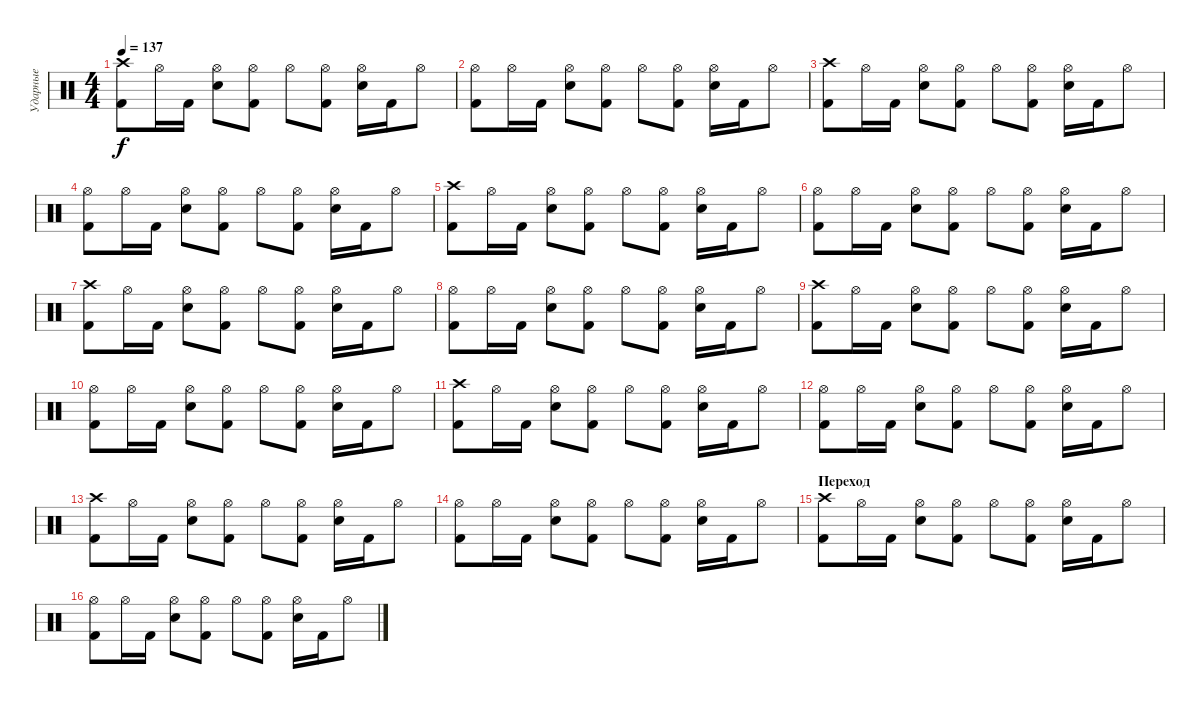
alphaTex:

\track ("Ударные" "Ударные") {instrument percussion}
\staff {score}
\articulation defaults
\ts (4 4)
\tempo 137
\clef neutral
\ks c
("Crash high (hit)" "Kick (hit) 2").8{dy f} "Hi-Hat (open)".16 "Kick (hit) 2".16 ("Hi-Hat (open)" "Electric Snare (hit)").8 ("Hi-Hat (open)" "Kick (hit) 2").8 "Hi-Hat (open)".8 ("Hi-Hat (open)" "Kick (hit) 2").8 ("Hi-Hat (open)" "Electric Snare (hit)").16 "Kick (hit) 2".16 "Hi-Hat (open)".8 |
("Hi-Hat (open)" "Kick (hit) 2").8 "Hi-Hat (open)".16 "Kick (hit) 2".16 ("Hi-Hat (open)" "Electric Snare (hit)").8 ("Hi-Hat (open)" "Kick (hit) 2").8 "Hi-Hat (open)".8 ("Hi-Hat (open)" "Kick (hit) 2").8 ("Hi-Hat (open)" "Electric Snare (hit)").16 "Kick (hit) 2".16 "Hi-Hat (open)".8 |
("Crash high (hit)" "Kick (hit) 2").8 "Hi-Hat (open)".16 "Kick (hit) 2".16 ("Hi-Hat (open)" "Electric Snare (hit)").8 ("Hi-Hat (open)" "Kick (hit) 2").8 "Hi-Hat (open)".8 ("Hi-Hat (open)" "Kick (hit) 2").8 ("Hi-Hat (open)" "Electric Snare (hit)").16 "Kick (hit) 2".16 "Hi-Hat (open)".8 |
("Hi-Hat (open)" "Kick (hit) 2").8 "Hi-Hat (open)".16 "Kick (hit) 2".16 ("Hi-Hat (open)" "Electric Snare (hit)").8 ("Hi-Hat (open)" "Kick (hit) 2").8 "Hi-Hat (open)".8 ("Hi-Hat (open)" "Kick (hit) 2").8 ("Hi-Hat (open)" "Electric Snare (hit)").16 "Kick (hit) 2".16 "Hi-Hat (open)".8 |
("Crash high (hit)" "Kick (hit) 2").8 "Hi-Hat (open)".16 "Kick (hit) 2".16 ("Hi-Hat (open)" "Electric Snare (hit)").8 ("Hi-Hat (open)" "Kick (hit) 2").8 "Hi-Hat (open)".8 ("Hi-Hat (open)" "Kick (hit) 2").8 ("Hi-Hat (open)" "Electric Snare (hit)").16 "Kick (hit) 2".16 "Hi-Hat (open)".8 |
("Hi-Hat (open)" "Kick (hit) 2").8 "Hi-Hat (open)".16 "Kick (hit) 2".16 ("Hi-Hat (open)" "Electric Snare (hit)").8 ("Hi-Hat (open)" "Kick (hit) 2").8 "Hi-Hat (open)".8 ("Hi-Hat (open)" "Kick (hit) 2").8 ("Hi-Hat (open)" "Electric Snare (hit)").16 "Kick (hit) 2".16 "Hi-Hat (open)".8 |
("Crash high (hit)" "Kick (hit) 2").8 "Hi-Hat (open)".16 "Kick (hit) 2".16 ("Hi-Hat (open)" "Electric Snare (hit)").8 ("Hi-Hat (open)" "Kick (hit) 2").8 "Hi-Hat (open)".8 ("Hi-Hat (open)" "Kick (hit) 2").8 ("Hi-Hat (open)" "Electric Snare (hit)").16 "Kick (hit) 2".16 "Hi-Hat (open)".8 |
("Hi-Hat (open)" "Kick (hit) 2").8 "Hi-Hat (open)".16 "Kick (hit) 2".16 ("Hi-Hat (open)" "Electric Snare (hit)").8 ("Hi-Hat (open)" "Kick (hit) 2").8 "Hi-Hat (open)".8 ("Hi-Hat (open)" "Kick (hit) 2").8 ("Hi-Hat (open)" "Electric Snare (hit)").16 "Kick (hit) 2".16 "Hi-Hat (open)".8 |
("Crash high (hit)" "Kick (hit) 2").8 "Hi-Hat (open)".16 "Kick (hit) 2".16 ("Hi-Hat (open)" "Electric Snare (hit)").8 ("Hi-Hat (open)" "Kick (hit) 2").8 "Hi-Hat (open)".8 ("Hi-Hat (open)" "Kick (hit) 2").8 ("Hi-Hat (open)" "Electric Snare (hit)").16 "Kick (hit) 2".16 "Hi-Hat (open)".8 |
("Hi-Hat (open)" "Kick (hit) 2").8 "Hi-Hat (open)".16 "Kick (hit) 2".16 ("Hi-Hat (open)" "Electric Snare (hit)").8 ("Hi-Hat (open)" "Kick (hit) 2").8 "Hi-Hat (open)".8 ("Hi-Hat (open)" "Kick (hit) 2").8 ("Hi-Hat (open)" "Electric Snare (hit)").16 "Kick (hit) 2".16 "Hi-Hat (open)".8 |
("Crash high (hit)" "Kick (hit) 2").8 "Hi-Hat (open)".16 "Kick (hit) 2".16 ("Hi-Hat (open)" "Electric Snare (hit)").8 ("Hi-Hat (open)" "Kick (hit) 2").8 "Hi-Hat (open)".8 ("Hi-Hat (open)" "Kick (hit) 2").8 ("Hi-Hat (open)" "Electric Snare (hit)").16 "Kick (hit) 2".16 "Hi-Hat (open)".8 |
("Hi-Hat (open)" "Kick (hit) 2").8 "Hi-Hat (open)".16 "Kick (hit) 2".16 ("Hi-Hat (open)" "Electric Snare (hit)").8 ("Hi-Hat (open)" "Kick (hit) 2").8 "Hi-Hat (open)".8 ("Hi-Hat (open)" "Kick (hit) 2").8 ("Hi-Hat (open)" "Electric Snare (hit)").16 "Kick (hit) 2".16 "Hi-Hat (open)".8 |
("Crash high (hit)" "Kick (hit) 2").8 "Hi-Hat (open)".16 "Kick (hit) 2".16 ("Hi-Hat (open)" "Electric Snare (hit)").8 ("Hi-Hat (open)" "Kick (hit) 2").8 "Hi-Hat (open)".8 ("Hi-Hat (open)" "Kick (hit) 2").8 ("Hi-Hat (open)" "Electric Snare (hit)").16 "Kick (hit) 2".16 "Hi-Hat (open)".8 |
("Hi-Hat (open)" "Kick (hit) 2").8 "Hi-Hat (open)".16 "Kick (hit) 2".16 ("Hi-Hat (open)" "Electric Snare (hit)").8 ("Hi-Hat (open)" "Kick (hit) 2").8 "Hi-Hat (open)".8 ("Hi-Hat (open)" "Kick (hit) 2").8 ("Hi-Hat (open)" "Electric Snare (hit)").16 "Kick (hit) 2".16 "Hi-Hat (open)".8 |
\section ("" "Переход")
("Crash high (hit)" "Kick (hit) 2").8 "Hi-Hat (open)".16 "Kick (hit) 2".16 ("Hi-Hat (open)" "Electric Snare (hit)").8 ("Hi-Hat (open)" "Kick (hit) 2").8 "Hi-Hat (open)".8 ("Hi-Hat (open)" "Kick (hit) 2").8 ("Hi-Hat (open)" "Electric Snare (hit)").16 "Kick (hit) 2".16 "Hi-Hat (open)".8 |
("Hi-Hat (open)" "Kick (hit) 2").8 "Hi-Hat (open)".16 "Kick (hit) 2".16 ("Hi-Hat (open)" "Electric Snare (hit)").8 ("Hi-Hat (open)" "Kick (hit) 2").8 "Hi-Hat (open)".8 ("Hi-Hat (open)" "Kick (hit) 2").8 ("Hi-Hat (open)" "Electric Snare (hit)").16 "Kick (hit) 2".16 "Hi-Hat (open)".8
